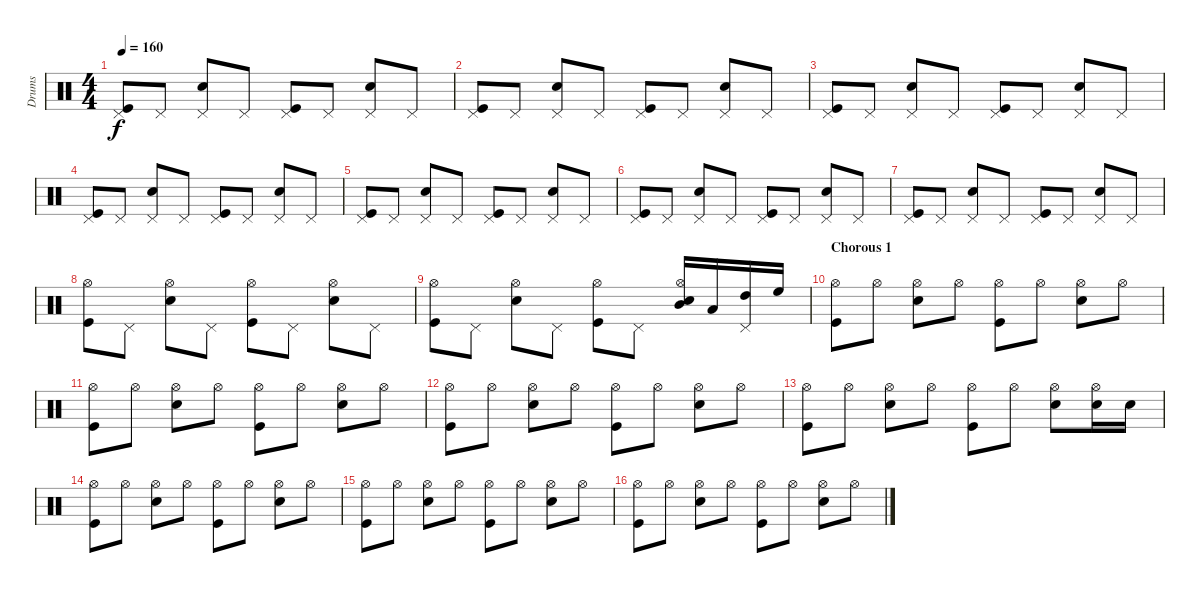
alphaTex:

\track ("Drums" "Drums") {instrument percussion}
\staff {score}
\articulation defaults
\ts (4 4)
\tempo 160
\clef neutral
\ks c
("Pedal Hi-Hat (hit)" "Kick (hit)").8{dy f} "Pedal Hi-Hat (hit)".8 ("Pedal Hi-Hat (hit)" "Snare (hit) 2").8 "Pedal Hi-Hat (hit)".8 ("Pedal Hi-Hat (hit)" "Kick (hit)").8 "Pedal Hi-Hat (hit)".8 ("Pedal Hi-Hat (hit)" "Snare (hit) 2").8 "Pedal Hi-Hat (hit)".8 |
("Pedal Hi-Hat (hit)" "Kick (hit)").8 "Pedal Hi-Hat (hit)".8 ("Pedal Hi-Hat (hit)" "Snare (hit) 2").8 "Pedal Hi-Hat (hit)".8 ("Pedal Hi-Hat (hit)" "Kick (hit)").8 "Pedal Hi-Hat (hit)".8 ("Pedal Hi-Hat (hit)" "Snare (hit) 2").8 "Pedal Hi-Hat (hit)".8 |
("Pedal Hi-Hat (hit)" "Kick (hit)").8 "Pedal Hi-Hat (hit)".8 ("Pedal Hi-Hat (hit)" "Snare (hit) 2").8 "Pedal Hi-Hat (hit)".8 ("Pedal Hi-Hat (hit)" "Kick (hit)").8 "Pedal Hi-Hat (hit)".8 ("Pedal Hi-Hat (hit)" "Snare (hit) 2").8 "Pedal Hi-Hat (hit)".8 |
("Pedal Hi-Hat (hit)" "Kick (hit)").8 "Pedal Hi-Hat (hit)".8 ("Pedal Hi-Hat (hit)" "Snare (hit) 2").8 "Pedal Hi-Hat (hit)".8 ("Pedal Hi-Hat (hit)" "Kick (hit)").8 "Pedal Hi-Hat (hit)".8 ("Pedal Hi-Hat (hit)" "Snare (hit) 2").8 "Pedal Hi-Hat (hit)".8 |
("Pedal Hi-Hat (hit)" "Kick (hit)").8 "Pedal Hi-Hat (hit)".8 ("Pedal Hi-Hat (hit)" "Snare (hit) 2").8 "Pedal Hi-Hat (hit)".8 ("Pedal Hi-Hat (hit)" "Kick (hit)").8 "Pedal Hi-Hat (hit)".8 ("Pedal Hi-Hat (hit)" "Snare (hit) 2").8 "Pedal Hi-Hat (hit)".8 |
("Pedal Hi-Hat (hit)" "Kick (hit)").8 "Pedal Hi-Hat (hit)".8 ("Pedal Hi-Hat (hit)" "Snare (hit) 2").8 "Pedal Hi-Hat (hit)".8 ("Pedal Hi-Hat (hit)" "Kick (hit)").8 "Pedal Hi-Hat (hit)".8 ("Pedal Hi-Hat (hit)" "Snare (hit) 2").8 "Pedal Hi-Hat (hit)".8 |
("Pedal Hi-Hat (hit)" "Kick (hit)").8 "Pedal Hi-Hat (hit)".8 ("Pedal Hi-Hat (hit)" "Snare (hit) 2").8 "Pedal Hi-Hat (hit)".8 ("Pedal Hi-Hat (hit)" "Kick (hit)").8 "Pedal Hi-Hat (hit)".8 ("Pedal Hi-Hat (hit)" "Snare (hit) 2").8 "Pedal Hi-Hat (hit)".8 |
("Hi-Hat (open)" "Kick (hit)").8 "Pedal Hi-Hat (hit)".8 ("Hi-Hat (open)" "Snare (hit) 2").8 "Pedal Hi-Hat (hit)".8 ("Hi-Hat (open)" "Kick (hit)").8 "Pedal Hi-Hat (hit)".8 ("Hi-Hat (open)" "Snare (hit) 2").8 "Pedal Hi-Hat (hit)".8 |
("Hi-Hat (open)" "Kick (hit)").8 "Pedal Hi-Hat (hit)".8 ("Hi-Hat (open)" "Snare (hit) 2").8 "Pedal Hi-Hat (hit)".8 ("Hi-Hat (open)" "Kick (hit)").8 "Pedal Hi-Hat (hit)".8 ("Hi-Hat (open)" "Mid Tom (hit)" "Snare (hit) 2").16 "Low Tom (hit)".16 ("Pedal Hi-Hat (hit)" "High Tom (hit)").16 "High Floor Tom (hit)".16 |
\section ("" "Chorous 1")
("Hi-Hat (open)" "Kick (hit)").8 "Hi-Hat (open)".8 ("Hi-Hat (open)" "Snare (hit) 2").8 "Hi-Hat (open)".8 ("Hi-Hat (open)" "Kick (hit)").8 "Hi-Hat (open)".8 ("Hi-Hat (open)" "Snare (hit) 2").8 "Hi-Hat (open)".8 |
("Hi-Hat (open)" "Kick (hit)").8 "Hi-Hat (open)".8 ("Hi-Hat (open)" "Snare (hit) 2").8 "Hi-Hat (open)".8 ("Hi-Hat (open)" "Kick (hit)").8 "Hi-Hat (open)".8 ("Hi-Hat (open)" "Snare (hit) 2").8 "Hi-Hat (open)".8 |
("Hi-Hat (open)" "Kick (hit)").8 "Hi-Hat (open)".8 ("Hi-Hat (open)" "Snare (hit) 2").8 "Hi-Hat (open)".8 ("Hi-Hat (open)" "Kick (hit)").8 "Hi-Hat (open)".8 ("Hi-Hat (open)" "Snare (hit) 2").8 "Hi-Hat (open)".8 |
("Hi-Hat (open)" "Kick (hit)").8 "Hi-Hat (open)".8 ("Hi-Hat (open)" "Snare (hit) 2").8 "Hi-Hat (open)".8 ("Hi-Hat (open)" "Kick (hit)").8 "Hi-Hat (open)".8 ("Hi-Hat (open)" "Snare (hit) 2").8 ("Hi-Hat (open)" "Snare (hit) 2").16 "Snare (hit) 2".16 |
("Hi-Hat (open)" "Kick (hit)").8 "Hi-Hat (open)".8 ("Hi-Hat (open)" "Snare (hit) 2").8 "Hi-Hat (open)".8 ("Hi-Hat (open)" "Kick (hit)").8 "Hi-Hat (open)".8 ("Hi-Hat (open)" "Snare (hit) 2").8 "Hi-Hat (open)".8 |
("Hi-Hat (open)" "Kick (hit)").8 "Hi-Hat (open)".8 ("Hi-Hat (open)" "Snare (hit) 2").8 "Hi-Hat (open)".8 ("Hi-Hat (open)" "Kick (hit)").8 "Hi-Hat (open)".8 ("Hi-Hat (open)" "Snare (hit) 2").8 "Hi-Hat (open)".8 |
("Hi-Hat (open)" "Kick (hit)").8 "Hi-Hat (open)".8 ("Hi-Hat (open)" "Snare (hit) 2").8 "Hi-Hat (open)".8 ("Hi-Hat (open)" "Kick (hit)").8 "Hi-Hat (open)".8 ("Hi-Hat (open)" "Snare (hit) 2").8 "Hi-Hat (open)".8
